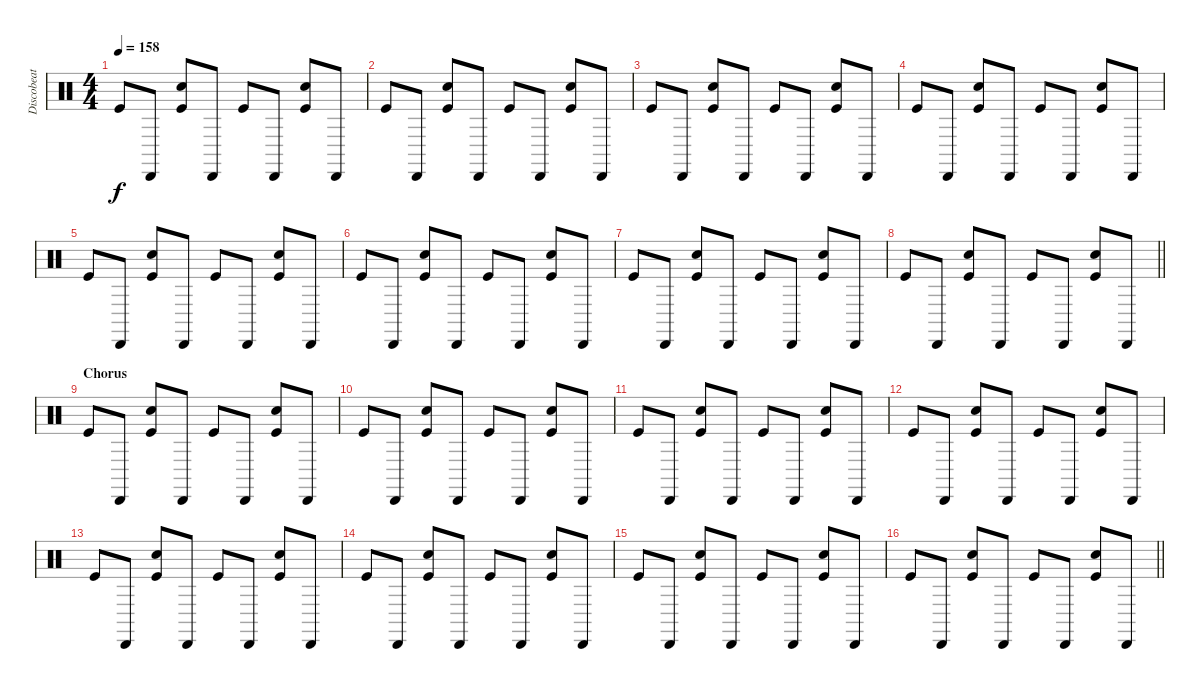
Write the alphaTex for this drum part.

\track ("Discobeat" "Discobeat") {instrument percussion}
\staff {score}
\articulation defaults
\ts (4 4)
\tempo 158
\clef neutral
\ks c "Kick (hit)".8{dy f} "Cabasa (hit)".8
("Kick (hit)" "Electric Snare (hit)").8 "Cabasa (hit)".8 "Kick (hit)".8 "Cabasa (hit)".8 ("Kick (hit)" "Electric Snare (hit)").8 "Cabasa (hit)".8 |
"Kick (hit)".8 "Cabasa (hit)".8 ("Kick (hit)" "Electric Snare (hit)").8 "Cabasa (hit)".8 "Kick (hit)".8 "Cabasa (hit)".8 ("Kick (hit)" "Electric Snare (hit)").8 "Cabasa (hit)".8 |
"Kick (hit)".8 "Cabasa (hit)".8 ("Kick (hit)" "Electric Snare (hit)").8 "Cabasa (hit)".8 "Kick (hit)".8 "Cabasa (hit)".8 ("Kick (hit)" "Electric Snare (hit)").8 "Cabasa (hit)".8 |
"Kick (hit)".8 "Cabasa (hit)".8 ("Kick (hit)" "Electric Snare (hit)").8 "Cabasa (hit)".8 "Kick (hit)".8 "Cabasa (hit)".8 ("Kick (hit)" "Electric Snare (hit)").8 "Cabasa (hit)".8 |
"Kick (hit)".8 "Cabasa (hit)".8 ("Kick (hit)" "Electric Snare (hit)").8 "Cabasa (hit)".8 "Kick (hit)".8 "Cabasa (hit)".8 ("Kick (hit)" "Electric Snare (hit)").8 "Cabasa (hit)".8 |
"Kick (hit)".8 "Cabasa (hit)".8 ("Kick (hit)" "Electric Snare (hit)").8 "Cabasa (hit)".8 "Kick (hit)".8 "Cabasa (hit)".8 ("Kick (hit)" "Electric Snare (hit)").8 "Cabasa (hit)".8 |
"Kick (hit)".8 "Cabasa (hit)".8 ("Kick (hit)" "Electric Snare (hit)").8 "Cabasa (hit)".8 "Kick (hit)".8 "Cabasa (hit)".8 ("Kick (hit)" "Electric Snare (hit)").8 "Cabasa (hit)".8 |
\barLineRight lightlight "Kick (hit)".8 "Cabasa (hit)".8
("Kick (hit)" "Electric Snare (hit)").8 "Cabasa (hit)".8 "Kick (hit)".8 "Cabasa (hit)".8 ("Kick (hit)" "Electric Snare (hit)").8 "Cabasa (hit)".8 |
\section ("" "Chorus")
"Kick (hit)".8 "Cabasa (hit)".8 ("Kick (hit)" "Electric Snare (hit)").8 "Cabasa (hit)".8 "Kick (hit)".8 "Cabasa (hit)".8 ("Kick (hit)" "Electric Snare (hit)").8 "Cabasa (hit)".8 |
"Kick (hit)".8 "Cabasa (hit)".8 ("Kick (hit)" "Electric Snare (hit)").8 "Cabasa (hit)".8 "Kick (hit)".8 "Cabasa (hit)".8 ("Kick (hit)" "Electric Snare (hit)").8 "Cabasa (hit)".8 |
"Kick (hit)".8 "Cabasa (hit)".8 ("Kick (hit)" "Electric Snare (hit)").8 "Cabasa (hit)".8 "Kick (hit)".8 "Cabasa (hit)".8 ("Kick (hit)" "Electric Snare (hit)").8 "Cabasa (hit)".8 |
"Kick (hit)".8 "Cabasa (hit)".8 ("Kick (hit)" "Electric Snare (hit)").8 "Cabasa (hit)".8 "Kick (hit)".8 "Cabasa (hit)".8 ("Kick (hit)" "Electric Snare (hit)").8 "Cabasa (hit)".8 |
"Kick (hit)".8 "Cabasa (hit)".8 ("Kick (hit)" "Electric Snare (hit)").8 "Cabasa (hit)".8 "Kick (hit)".8 "Cabasa (hit)".8 ("Kick (hit)" "Electric Snare (hit)").8 "Cabasa (hit)".8 |
"Kick (hit)".8 "Cabasa (hit)".8 ("Kick (hit)" "Electric Snare (hit)").8 "Cabasa (hit)".8 "Kick (hit)".8 "Cabasa (hit)".8 ("Kick (hit)" "Electric Snare (hit)").8 "Cabasa (hit)".8 |
"Kick (hit)".8 "Cabasa (hit)".8 ("Kick (hit)" "Electric Snare (hit)").8 "Cabasa (hit)".8 "Kick (hit)".8 "Cabasa (hit)".8 ("Kick (hit)" "Electric Snare (hit)").8 "Cabasa (hit)".8 |
\barLineRight lightlight "Kick (hit)".8 "Cabasa (hit)".8
("Kick (hit)" "Electric Snare (hit)").8 "Cabasa (hit)".8 "Kick (hit)".8 "Cabasa (hit)".8 ("Kick (hit)" "Electric Snare (hit)").8 "Cabasa (hit)".8
